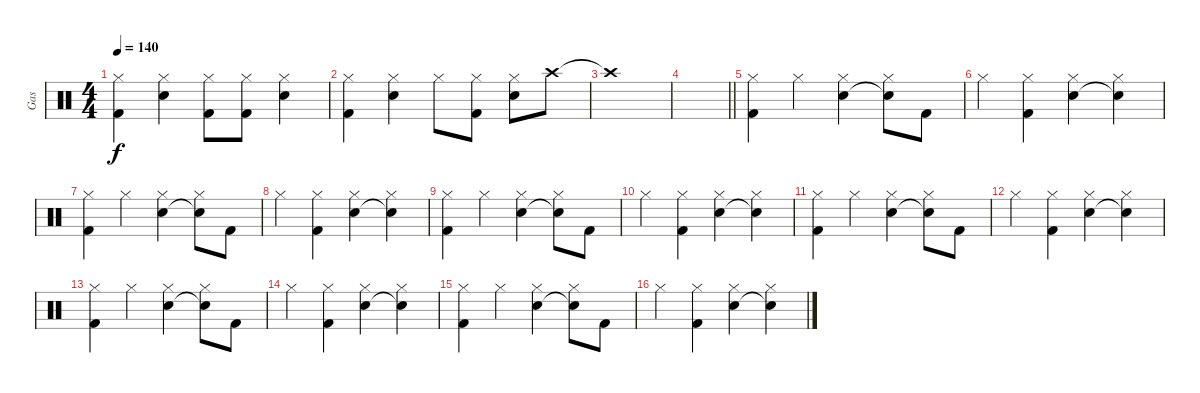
\track ("Gas" "Gas") {instrument percussion}
\staff {score}
\articulation defaults
\ts (4 4)
\tempo 140
\clef neutral
\ks c
("Hi-Hat (closed)" "Kick (hit) 2").4{dy f} ("Hi-Hat (closed)" "Electric Snare (hit)").4 ("Hi-Hat (closed)" "Kick (hit) 2").8 ("Hi-Hat (closed)" "Kick (hit) 2").8 ("Hi-Hat (closed)" "Electric Snare (hit)").4 |
("Hi-Hat (closed)" "Kick (hit) 2").4 ("Hi-Hat (closed)" "Electric Snare (hit)").4 "Hi-Hat (closed)".8 ("Hi-Hat (closed)" "Kick (hit) 2").8 ("Hi-Hat (closed)" "Electric Snare (hit)").8 "Crash high (hit)".8 |
"Crash high (hit)"{t}.1 |
\barLineRight lightlight
|
("Hi-Hat (closed)" "Kick (hit) 2").4 "Hi-Hat (closed)".4 ("Hi-Hat (closed)" "Electric Snare (hit)").4 ("Hi-Hat (closed)" "Snare (hit)"{t}).8 "Kick (hit) 2".8 |
"Hi-Hat (closed)".4 ("Hi-Hat (closed)" "Kick (hit) 2").4 ("Hi-Hat (closed)" "Electric Snare (hit)").4 ("Hi-Hat (closed)" "Snare (hit)"{t}).4 |
("Hi-Hat (closed)" "Kick (hit) 2").4 "Hi-Hat (closed)".4 ("Hi-Hat (closed)" "Electric Snare (hit)").4 ("Hi-Hat (closed)" "Snare (hit)"{t}).8 "Kick (hit) 2".8 |
"Hi-Hat (closed)".4 ("Hi-Hat (closed)" "Kick (hit) 2").4 ("Hi-Hat (closed)" "Electric Snare (hit)").4 ("Hi-Hat (closed)" "Snare (hit)"{t}).4 |
("Hi-Hat (closed)" "Kick (hit) 2").4 "Hi-Hat (closed)".4 ("Hi-Hat (closed)" "Electric Snare (hit)").4 ("Hi-Hat (closed)" "Snare (hit)"{t}).8 "Kick (hit) 2".8 |
"Hi-Hat (closed)".4 ("Hi-Hat (closed)" "Kick (hit) 2").4 ("Hi-Hat (closed)" "Electric Snare (hit)").4 ("Hi-Hat (closed)" "Snare (hit)"{t}).4 |
("Hi-Hat (closed)" "Kick (hit) 2").4 "Hi-Hat (closed)".4 ("Hi-Hat (closed)" "Electric Snare (hit)").4 ("Hi-Hat (closed)" "Snare (hit)"{t}).8 "Kick (hit) 2".8 |
"Hi-Hat (closed)".4 ("Hi-Hat (closed)" "Kick (hit) 2").4 ("Hi-Hat (closed)" "Electric Snare (hit)").4 ("Hi-Hat (closed)" "Snare (hit)"{t}).4 |
("Hi-Hat (closed)" "Kick (hit) 2").4 "Hi-Hat (closed)".4 ("Hi-Hat (closed)" "Electric Snare (hit)").4 ("Hi-Hat (closed)" "Snare (hit)"{t}).8 "Kick (hit) 2".8 |
"Hi-Hat (closed)".4 ("Hi-Hat (closed)" "Kick (hit) 2").4 ("Hi-Hat (closed)" "Electric Snare (hit)").4 ("Hi-Hat (closed)" "Snare (hit)"{t}).4 |
("Hi-Hat (closed)" "Kick (hit) 2").4 "Hi-Hat (closed)".4 ("Hi-Hat (closed)" "Electric Snare (hit)").4 ("Hi-Hat (closed)" "Snare (hit)"{t}).8 "Kick (hit) 2".8 |
"Hi-Hat (closed)".4 ("Hi-Hat (closed)" "Kick (hit) 2").4 ("Hi-Hat (closed)" "Electric Snare (hit)").4 ("Hi-Hat (closed)" "Snare (hit)"{t}).4
